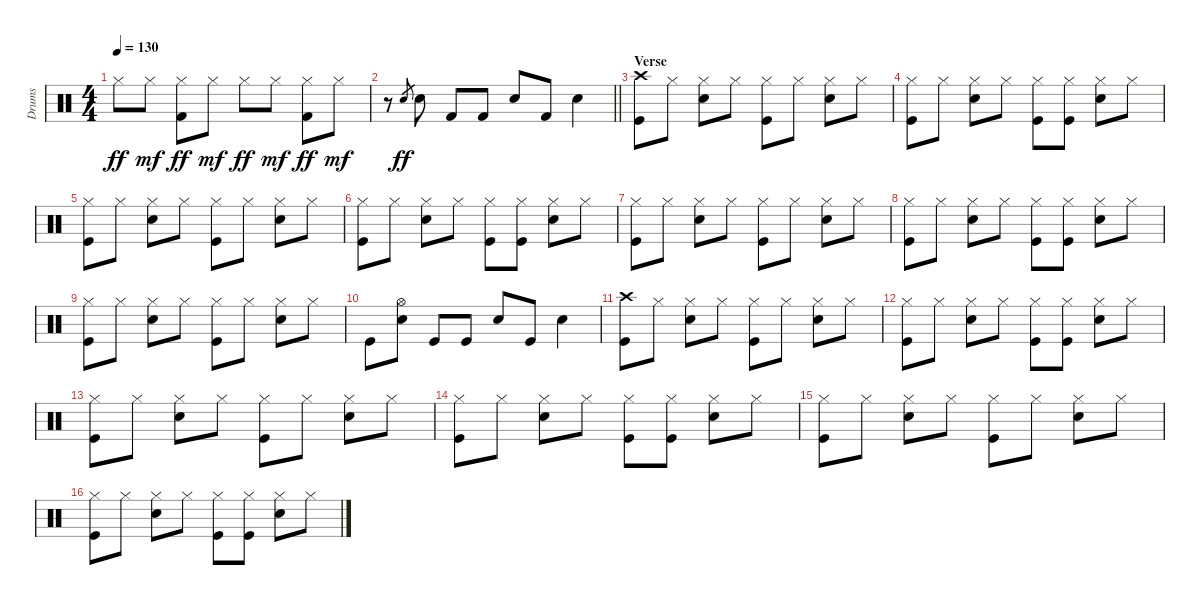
\track ("Drums" "Drums") {instrument percussion}
\staff {score}
\articulation defaults
\ts (4 4)
\tempo 130
\clef neutral
\ks c "Hi-Hat (closed)".8{dy ff} "Hi-Hat (closed)".8{dy mf}
("Hi-Hat (closed)" "Kick (hit) 2").8{dy ff} "Hi-Hat (closed)".8{dy mf} "Hi-Hat (closed)".8{dy ff} "Hi-Hat (closed)".8{dy mf} ("Hi-Hat (closed)" "Kick (hit) 2").8{dy ff} "Hi-Hat (closed)".8{dy mf} |
\barLineRight lightlight
r.8 "Snare (hit) 2".8{gr dy ff} "Snare (hit) 2".8 "Kick (hit) 2".8 "Kick (hit) 2".8 "Snare (hit) 2".8 "Kick (hit) 2".8 "Snare (hit) 2".4 |
\section ("" "Verse")
("Crash high (hit)" "Kick (hit)").8 "Hi-Hat (closed)".8 ("Hi-Hat (closed)" "Snare (hit) 2").8 "Hi-Hat (closed)".8 ("Hi-Hat (closed)" "Kick (hit)").8 "Hi-Hat (closed)".8 ("Hi-Hat (closed)" "Snare (hit) 2").8 "Hi-Hat (closed)".8 |
("Hi-Hat (closed)" "Kick (hit)").8 "Hi-Hat (closed)".8 ("Hi-Hat (closed)" "Snare (hit) 2").8 "Hi-Hat (closed)".8 ("Hi-Hat (closed)" "Kick (hit)").8 ("Hi-Hat (closed)" "Kick (hit)").8 ("Hi-Hat (closed)" "Snare (hit) 2").8 "Hi-Hat (closed)".8 |
("Hi-Hat (closed)" "Kick (hit)").8 "Hi-Hat (closed)".8 ("Hi-Hat (closed)" "Snare (hit) 2").8 "Hi-Hat (closed)".8 ("Hi-Hat (closed)" "Kick (hit)").8 "Hi-Hat (closed)".8 ("Hi-Hat (closed)" "Snare (hit) 2").8 "Hi-Hat (closed)".8 |
("Hi-Hat (closed)" "Kick (hit)").8 "Hi-Hat (closed)".8 ("Hi-Hat (closed)" "Snare (hit) 2").8 "Hi-Hat (closed)".8 ("Hi-Hat (closed)" "Kick (hit)").8 ("Hi-Hat (closed)" "Kick (hit)").8 ("Hi-Hat (closed)" "Snare (hit) 2").8 "Hi-Hat (closed)".8 |
("Hi-Hat (closed)" "Kick (hit)").8 "Hi-Hat (closed)".8 ("Hi-Hat (closed)" "Snare (hit) 2").8 "Hi-Hat (closed)".8 ("Hi-Hat (closed)" "Kick (hit)").8 "Hi-Hat (closed)".8 ("Hi-Hat (closed)" "Snare (hit) 2").8 "Hi-Hat (closed)".8 |
("Hi-Hat (closed)" "Kick (hit)").8 "Hi-Hat (closed)".8 ("Hi-Hat (closed)" "Snare (hit) 2").8 "Hi-Hat (closed)".8 ("Hi-Hat (closed)" "Kick (hit)").8 ("Hi-Hat (closed)" "Kick (hit)").8 ("Hi-Hat (closed)" "Snare (hit) 2").8 "Hi-Hat (closed)".8 |
("Hi-Hat (closed)" "Kick (hit)").8 "Hi-Hat (closed)".8 ("Hi-Hat (closed)" "Snare (hit) 2").8 "Hi-Hat (closed)".8 ("Hi-Hat (closed)" "Kick (hit)").8 "Hi-Hat (closed)".8 ("Hi-Hat (closed)" "Snare (hit) 2").8 "Hi-Hat (closed)".8 |
"Kick (hit)".8 ("Hi-Hat (open)" "Snare (hit) 2").8 "Kick (hit)".8 "Kick (hit)".8 "Snare (hit) 2".8 "Kick (hit)".8 "Snare (hit) 2".4 |
("Crash high (hit)" "Kick (hit)").8 "Hi-Hat (closed)".8 ("Hi-Hat (closed)" "Snare (hit) 2").8 "Hi-Hat (closed)".8 ("Hi-Hat (closed)" "Kick (hit)").8 "Hi-Hat (closed)".8 ("Hi-Hat (closed)" "Snare (hit) 2").8 "Hi-Hat (closed)".8 |
("Hi-Hat (closed)" "Kick (hit)").8 "Hi-Hat (closed)".8 ("Hi-Hat (closed)" "Snare (hit) 2").8 "Hi-Hat (closed)".8 ("Hi-Hat (closed)" "Kick (hit)").8 ("Hi-Hat (closed)" "Kick (hit)").8 ("Hi-Hat (closed)" "Snare (hit) 2").8 "Hi-Hat (closed)".8 |
("Hi-Hat (closed)" "Kick (hit)").8 "Hi-Hat (closed)".8 ("Hi-Hat (closed)" "Snare (hit) 2").8 "Hi-Hat (closed)".8 ("Hi-Hat (closed)" "Kick (hit)").8 "Hi-Hat (closed)".8 ("Hi-Hat (closed)" "Snare (hit) 2").8 "Hi-Hat (closed)".8 |
("Hi-Hat (closed)" "Kick (hit)").8 "Hi-Hat (closed)".8 ("Hi-Hat (closed)" "Snare (hit) 2").8 "Hi-Hat (closed)".8 ("Hi-Hat (closed)" "Kick (hit)").8 ("Hi-Hat (closed)" "Kick (hit)").8 ("Hi-Hat (closed)" "Snare (hit) 2").8 "Hi-Hat (closed)".8 |
("Hi-Hat (closed)" "Kick (hit)").8 "Hi-Hat (closed)".8 ("Hi-Hat (closed)" "Snare (hit) 2").8 "Hi-Hat (closed)".8 ("Hi-Hat (closed)" "Kick (hit)").8 "Hi-Hat (closed)".8 ("Hi-Hat (closed)" "Snare (hit) 2").8 "Hi-Hat (closed)".8 |
("Hi-Hat (closed)" "Kick (hit)").8 "Hi-Hat (closed)".8 ("Hi-Hat (closed)" "Snare (hit) 2").8 "Hi-Hat (closed)".8 ("Hi-Hat (closed)" "Kick (hit)").8 ("Hi-Hat (closed)" "Kick (hit)").8 ("Hi-Hat (closed)" "Snare (hit) 2").8 "Hi-Hat (closed)".8
